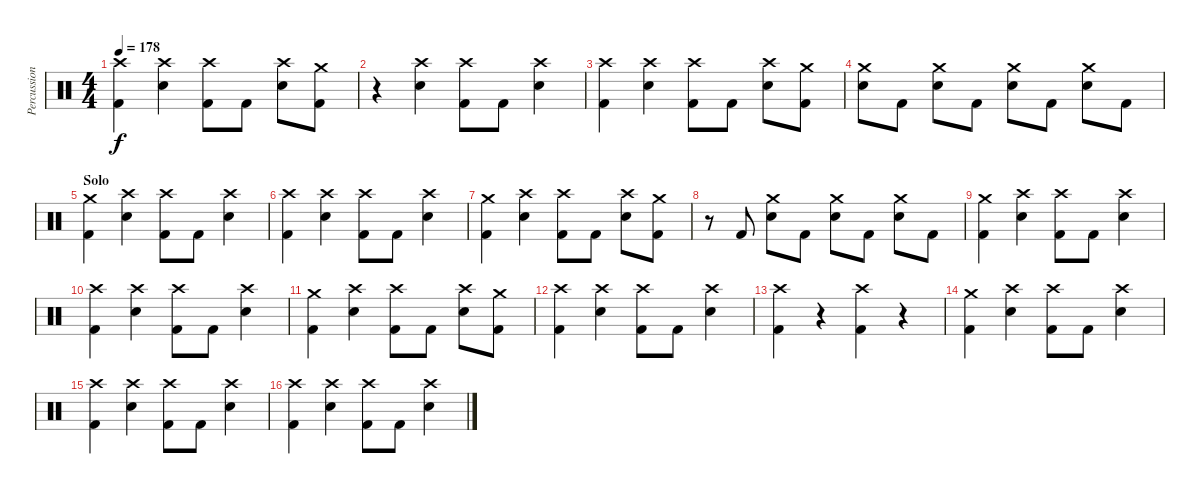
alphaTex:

\track ("Percussion" "Percussion") {instrument percussion}
\staff {score}
\articulation defaults
\ts (4 4)
\tempo 178
\clef neutral
\ks c
("Crash high (hit)" "Kick (hit) 2").4{dy f} ("Crash high (hit)" "Snare (hit) 2").4 ("Crash high (hit)" "Kick (hit) 2").8 "Kick (hit) 2".8 ("Crash high (hit)" "Snare (hit) 2").8 ("Crash medium (hit)" "Kick (hit) 2").8 |
r.4 ("Crash high (hit)" "Snare (hit) 2").4 ("Crash high (hit)" "Kick (hit) 2").8 "Kick (hit) 2".8 ("Crash high (hit)" "Snare (hit) 2").4 |
("Crash high (hit)" "Kick (hit) 2").4 ("Crash high (hit)" "Snare (hit) 2").4 ("Crash high (hit)" "Kick (hit) 2").8 "Kick (hit) 2".8 ("Crash high (hit)" "Snare (hit) 2").8 ("Crash medium (hit)" "Kick (hit) 2").8 |
("Crash medium (hit)" "Snare (hit) 2").8 "Kick (hit) 2".8 ("Crash medium (hit)" "Snare (hit) 2").8 "Kick (hit) 2".8 ("Crash medium (hit)" "Snare (hit) 2").8 "Kick (hit) 2".8 ("Crash medium (hit)" "Snare (hit) 2").8 "Kick (hit) 2".8 |
\section ("" "Solo")
("Crash medium (hit)" "Kick (hit) 2").4 ("Crash high (hit)" "Snare (hit) 2").4 ("Crash high (hit)" "Kick (hit) 2").8 "Kick (hit) 2".8 ("Crash high (hit)" "Snare (hit) 2").4 |
("Crash high (hit)" "Kick (hit) 2").4 ("Crash high (hit)" "Snare (hit) 2").4 ("Crash high (hit)" "Kick (hit) 2").8 "Kick (hit) 2".8 ("Crash high (hit)" "Snare (hit) 2").4 |
("Crash medium (hit)" "Kick (hit) 2").4 ("Crash high (hit)" "Snare (hit) 2").4 ("Crash high (hit)" "Kick (hit) 2").8 "Kick (hit) 2".8 ("Crash high (hit)" "Snare (hit) 2").8 ("Crash medium (hit)" "Kick (hit) 2").8 |
r.8 "Kick (hit) 2".8 ("Crash medium (hit)" "Snare (hit) 2").8 "Kick (hit) 2".8 ("Crash medium (hit)" "Snare (hit) 2").8 "Kick (hit) 2".8 ("Crash medium (hit)" "Snare (hit) 2").8 "Kick (hit) 2".8 |
("Crash medium (hit)" "Kick (hit) 2").4 ("Crash high (hit)" "Snare (hit) 2").4 ("Crash high (hit)" "Kick (hit) 2").8 "Kick (hit) 2".8 ("Crash high (hit)" "Snare (hit) 2").4 |
("Crash high (hit)" "Kick (hit) 2").4 ("Crash high (hit)" "Snare (hit) 2").4 ("Crash high (hit)" "Kick (hit) 2").8 "Kick (hit) 2".8 ("Crash high (hit)" "Snare (hit) 2").4 |
("Crash medium (hit)" "Kick (hit) 2").4 ("Crash high (hit)" "Snare (hit) 2").4 ("Crash high (hit)" "Kick (hit) 2").8 "Kick (hit) 2".8 ("Crash high (hit)" "Snare (hit) 2").8 ("Crash medium (hit)" "Kick (hit) 2").8 |
("Crash high (hit)" "Kick (hit) 2").4 ("Crash high (hit)" "Snare (hit) 2").4 ("Crash high (hit)" "Kick (hit) 2").8 "Kick (hit) 2".8 ("Crash high (hit)" "Snare (hit) 2").4 |
("Crash high (hit)" "Kick (hit) 2").4 r.4 ("Crash high (hit)" "Kick (hit) 2").4 r.4 |
("Crash medium (hit)" "Kick (hit) 2").4 ("Crash high (hit)" "Snare (hit) 2").4 ("Crash high (hit)" "Kick (hit) 2").8 "Kick (hit) 2".8 ("Crash high (hit)" "Snare (hit) 2").4 |
("Crash high (hit)" "Kick (hit) 2").4 ("Crash high (hit)" "Snare (hit) 2").4 ("Crash high (hit)" "Kick (hit) 2").8 "Kick (hit) 2".8 ("Crash high (hit)" "Snare (hit) 2").4 |
("Crash high (hit)" "Kick (hit) 2").4 ("Crash high (hit)" "Snare (hit) 2").4 ("Crash high (hit)" "Kick (hit) 2").8 "Kick (hit) 2".8 ("Crash high (hit)" "Snare (hit) 2").4
